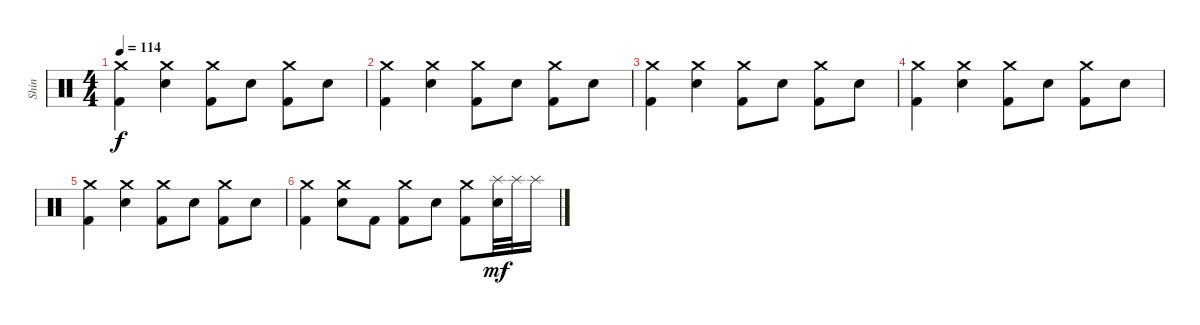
\track ("Shin" "Shin") {instrument percussion}
\staff {score}
\articulation defaults
\ts (4 4)
\tempo 114
\clef neutral
\ks c
("Crash medium (hit)" "Kick (hit) 2").4{dy f} ("Crash medium (hit)" "Electric Snare (hit)").4 ("Crash medium (hit)" "Kick (hit) 2").8 "Electric Snare (hit)".8 ("Crash medium (hit)" "Kick (hit) 2").8 "Electric Snare (hit)".8 |
("Crash medium (hit)" "Kick (hit) 2").4 ("Crash medium (hit)" "Electric Snare (hit)").4 ("Crash medium (hit)" "Kick (hit) 2").8 "Electric Snare (hit)".8 ("Crash medium (hit)" "Kick (hit) 2").8 "Electric Snare (hit)".8 |
("Crash medium (hit)" "Kick (hit) 2").4 ("Crash medium (hit)" "Electric Snare (hit)").4 ("Crash medium (hit)" "Kick (hit) 2").8 "Electric Snare (hit)".8 ("Crash medium (hit)" "Kick (hit) 2").8 "Electric Snare (hit)".8 |
("Crash medium (hit)" "Kick (hit) 2").4 ("Crash medium (hit)" "Electric Snare (hit)").4 ("Crash medium (hit)" "Kick (hit) 2").8 "Electric Snare (hit)".8 ("Crash medium (hit)" "Kick (hit) 2").8 "Electric Snare (hit)".8 |
("Crash medium (hit)" "Kick (hit) 2").4 ("Crash medium (hit)" "Electric Snare (hit)").4 ("Crash medium (hit)" "Kick (hit) 2").8 "Electric Snare (hit)".8 ("Crash medium (hit)" "Kick (hit) 2").8 "Electric Snare (hit)".8 |
("Crash medium (hit)" "Kick (hit) 2").4 ("Crash medium (hit)" "Electric Snare (hit)").8 "Kick (hit) 2".8 ("Crash medium (hit)" "Kick (hit) 2").8 "Electric Snare (hit)".8 ("Crash medium (hit)" "Kick (hit) 2").8 ("Splash (hit)" "Electric Snare (hit)").32{dy mf} "Splash (hit)".32 "Splash (hit)".16
